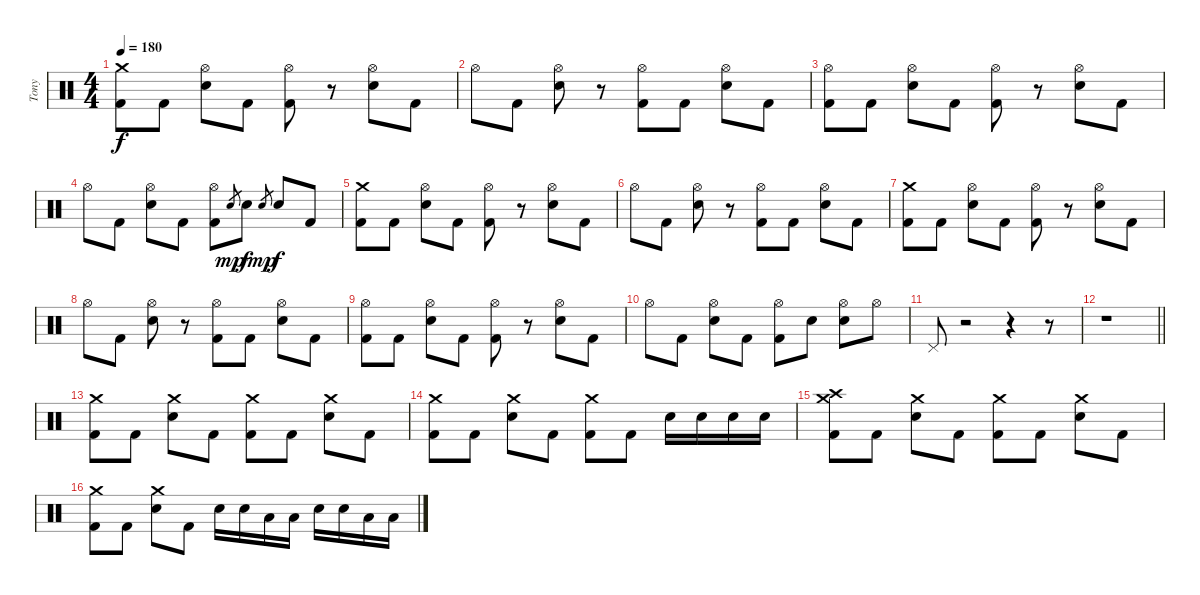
\track ("Tony" "Tony") {instrument percussion}
\staff {score}
\articulation defaults
\ts (4 4)
\section ("" "")
\tempo 180
\clef neutral
\ks c
("Crash medium (hit)" "Kick (hit) 2").8{dy f} "Kick (hit) 2".8 ("Hi-Hat (open)" "Electric Snare (hit)").8 "Kick (hit) 2".8 ("Hi-Hat (open)" "Kick (hit) 2").8 r.8 ("Hi-Hat (open)" "Electric Snare (hit)").8 "Kick (hit) 2".8 |
"Hi-Hat (open)".8 "Kick (hit) 2".8 ("Hi-Hat (open)" "Electric Snare (hit)").8 r.8 ("Hi-Hat (open)" "Kick (hit) 2").8 "Kick (hit) 2".8 ("Hi-Hat (open)" "Electric Snare (hit)").8 "Kick (hit) 2".8 |
("Hi-Hat (open)" "Kick (hit) 2").8 "Kick (hit) 2".8 ("Hi-Hat (open)" "Electric Snare (hit)").8 "Kick (hit) 2".8 ("Hi-Hat (open)" "Kick (hit) 2").8 r.8 ("Hi-Hat (open)" "Electric Snare (hit)").8 "Kick (hit) 2".8 |
"Hi-Hat (open)".8 "Kick (hit) 2".8 ("Hi-Hat (open)" "Electric Snare (hit)").8 "Kick (hit) 2".8 ("Hi-Hat (open)" "Kick (hit) 2").8 "Electric Snare (hit)".8{gr dy mp} "Electric Snare (hit)".8{dy f} "Electric Snare (hit)".8{gr dy mp} "Electric Snare (hit)".8{dy f} "Kick (hit) 2".8 |
("Crash medium (hit)" "Kick (hit) 2").8 "Kick (hit) 2".8 ("Hi-Hat (open)" "Electric Snare (hit)").8 "Kick (hit) 2".8 ("Hi-Hat (open)" "Kick (hit) 2").8 r.8 ("Hi-Hat (open)" "Electric Snare (hit)").8 "Kick (hit) 2".8 |
"Hi-Hat (open)".8 "Kick (hit) 2".8 ("Hi-Hat (open)" "Electric Snare (hit)").8 r.8 ("Hi-Hat (open)" "Kick (hit) 2").8 "Kick (hit) 2".8 ("Hi-Hat (open)" "Electric Snare (hit)").8 "Kick (hit) 2".8 |
("Crash medium (hit)" "Kick (hit) 2").8 "Kick (hit) 2".8 ("Hi-Hat (open)" "Electric Snare (hit)").8 "Kick (hit) 2".8 ("Hi-Hat (open)" "Kick (hit) 2").8 r.8 ("Hi-Hat (open)" "Electric Snare (hit)").8 "Kick (hit) 2".8 |
"Hi-Hat (open)".8 "Kick (hit) 2".8 ("Hi-Hat (open)" "Electric Snare (hit)").8 r.8 ("Hi-Hat (open)" "Kick (hit) 2").8 "Kick (hit) 2".8 ("Hi-Hat (open)" "Electric Snare (hit)").8 "Kick (hit) 2".8 |
("Hi-Hat (open)" "Kick (hit) 2").8 "Kick (hit) 2".8 ("Hi-Hat (open)" "Electric Snare (hit)").8 "Kick (hit) 2".8 ("Hi-Hat (open)" "Kick (hit) 2").8 r.8 ("Hi-Hat (open)" "Electric Snare (hit)").8 "Kick (hit) 2".8 |
"Hi-Hat (open)".8 "Kick (hit) 2".8 ("Hi-Hat (open)" "Electric Snare (hit)").8 "Kick (hit) 2".8 ("Hi-Hat (open)" "Kick (hit) 2").8 "Electric Snare (hit)".8 ("Hi-Hat (open)" "Electric Snare (hit)").8 "Hi-Hat (open)".8 |
"Pedal Hi-Hat (hit)".8 r.2 r.4 r.8 |
\barLineRight lightlight
r.1 |
\section ("" "")
("Crash medium (hit)" "Kick (hit) 2").8 "Kick (hit) 2".8 ("Crash medium (hit)" "Electric Snare (hit)").8 "Kick (hit) 2".8 ("Crash medium (hit)" "Kick (hit) 2").8 "Kick (hit) 2".8 ("Crash medium (hit)" "Electric Snare (hit)").8 "Kick (hit) 2".8 |
("Crash medium (hit)" "Kick (hit) 2").8 "Kick (hit) 2".8 ("Crash medium (hit)" "Electric Snare (hit)").8 "Kick (hit) 2".8 ("Crash medium (hit)" "Kick (hit) 2").8 "Kick (hit) 2".8 "Electric Snare (hit)".16 "Electric Snare (hit)".16 "Electric Snare (hit)".16 "Electric Snare (hit)".16 |
("Crash medium (hit)" "Crash high (hit)" "Kick (hit) 2").8 "Kick (hit) 2".8 ("Crash medium (hit)" "Electric Snare (hit)").8 "Kick (hit) 2".8 ("Crash medium (hit)" "Kick (hit) 2").8 "Kick (hit) 2".8 ("Crash medium (hit)" "Electric Snare (hit)").8 "Kick (hit) 2".8 |
("Crash medium (hit)" "Kick (hit) 2").8 "Kick (hit) 2".8 ("Crash medium (hit)" "Electric Snare (hit)").8 "Kick (hit) 2".8 "Electric Snare (hit)".16 "Electric Snare (hit)".16 "Low Tom (hit)".16 "Low Tom (hit)".16 "Electric Snare (hit)".16 "Electric Snare (hit)".16 "Low Floor Tom (hit)".16 "Low Floor Tom (hit)".16
